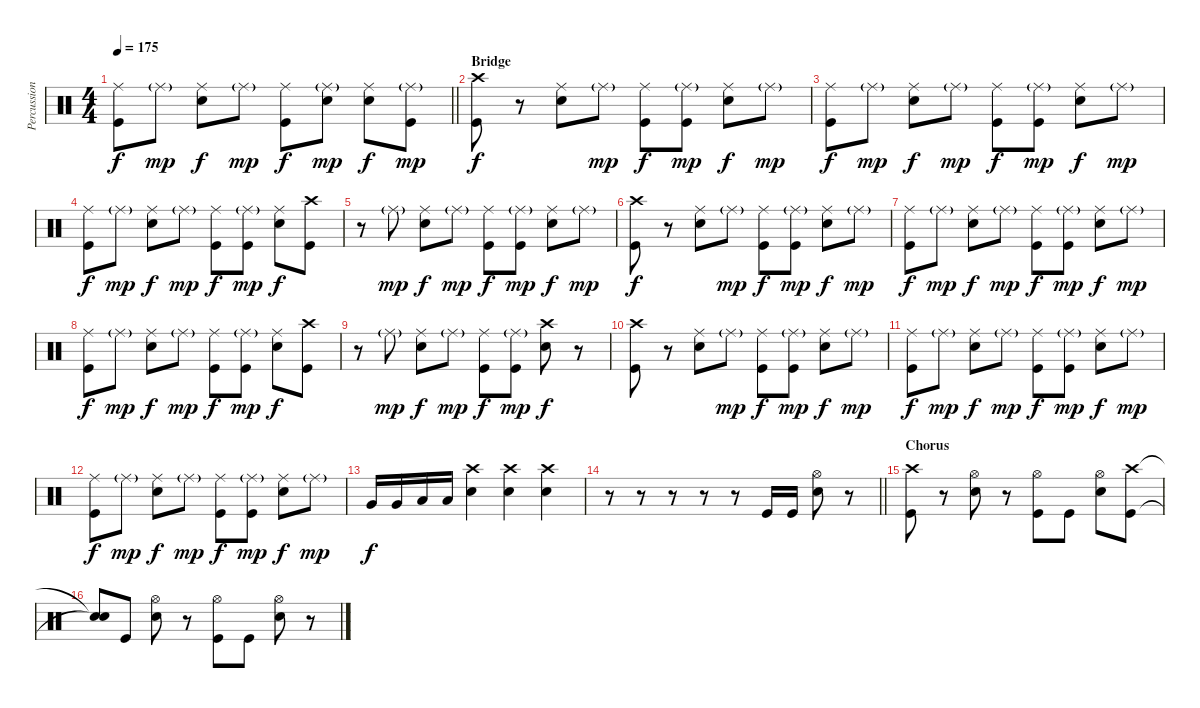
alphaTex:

\track ("Percussion" "Percussion") {instrument percussion}
\staff {score}
\articulation defaults
\ts (4 4)
\tempo 175
\clef neutral
\barLineRight lightlight
\ks c
("Ride (middle)" "Kick (hit)").8{dy f} "Ride (middle)"{g}.8{dy mp} ("Ride (middle)" "Snare (hit) 2").8{dy f} "Ride (middle)"{g}.8{dy mp} ("Ride (middle)" "Kick (hit)").8{dy f} ("Ride (middle)"{g} "Snare (hit) 2").8{dy mp} ("Ride (middle)" "Snare (hit) 2").8{dy f} ("Ride (middle)"{g} "Kick (hit)").8{dy mp} |
\section ("" "Bridge")
("Crash high (hit)" "Kick (hit)").8{dy f} r.8 ("Ride (middle)" "Snare (hit) 2").8 "Ride (middle)"{g}.8{dy mp} ("Ride (middle)" "Kick (hit)").8{dy f} ("Ride (middle)"{g} "Kick (hit)").8{dy mp} ("Ride (middle)" "Snare (hit) 2").8{dy f} "Ride (middle)"{g}.8{dy mp} |
("Ride (middle)" "Kick (hit)").8{dy f} "Ride (middle)"{g}.8{dy mp} ("Ride (middle)" "Snare (hit) 2").8{dy f} "Ride (middle)"{g}.8{dy mp} ("Ride (middle)" "Kick (hit)").8{dy f} ("Ride (middle)"{g} "Kick (hit)").8{dy mp} ("Ride (middle)" "Snare (hit) 2").8{dy f} "Ride (middle)"{g}.8{dy mp} |
("Ride (middle)" "Kick (hit)").8{dy f} "Ride (middle)"{g}.8{dy mp} ("Ride (middle)" "Snare (hit) 2").8{dy f} "Ride (middle)"{g}.8{dy mp} ("Ride (middle)" "Kick (hit)").8{dy f} ("Ride (middle)"{g} "Kick (hit)").8{dy mp} ("Ride (middle)" "Snare (hit) 2").8{dy f} ("Crash high (hit)" "Kick (hit)").8 |
r.8 "Ride (middle)"{g}.8{dy mp} ("Ride (middle)" "Snare (hit) 2").8{dy f} "Ride (middle)"{g}.8{dy mp} ("Ride (middle)" "Kick (hit)").8{dy f} ("Ride (middle)"{g} "Kick (hit)").8{dy mp} ("Ride (middle)" "Snare (hit) 2").8{dy f} "Ride (middle)"{g}.8{dy mp} |
("Crash high (hit)" "Kick (hit)").8{dy f} r.8 ("Ride (middle)" "Snare (hit) 2").8 "Ride (middle)"{g}.8{dy mp} ("Ride (middle)" "Kick (hit)").8{dy f} ("Ride (middle)"{g} "Kick (hit)").8{dy mp} ("Ride (middle)" "Snare (hit) 2").8{dy f} "Ride (middle)"{g}.8{dy mp} |
("Ride (middle)" "Kick (hit)").8{dy f} "Ride (middle)"{g}.8{dy mp} ("Ride (middle)" "Snare (hit) 2").8{dy f} "Ride (middle)"{g}.8{dy mp} ("Ride (middle)" "Kick (hit)").8{dy f} ("Ride (middle)"{g} "Kick (hit)").8{dy mp} ("Ride (middle)" "Snare (hit) 2").8{dy f} "Ride (middle)"{g}.8{dy mp} |
("Ride (middle)" "Kick (hit)").8{dy f} "Ride (middle)"{g}.8{dy mp} ("Ride (middle)" "Snare (hit) 2").8{dy f} "Ride (middle)"{g}.8{dy mp} ("Ride (middle)" "Kick (hit)").8{dy f} ("Ride (middle)"{g} "Kick (hit)").8{dy mp} ("Ride (middle)" "Snare (hit) 2").8{dy f} ("Crash high (hit)" "Kick (hit)").8 |
r.8 "Ride (middle)"{g}.8{dy mp} ("Ride (middle)" "Snare (hit) 2").8{dy f} "Ride (middle)"{g}.8{dy mp} ("Ride (middle)" "Kick (hit)").8{dy f} ("Ride (middle)"{g} "Kick (hit)").8{dy mp} ("Crash high (hit)" "Snare (hit) 2").8{dy f} r.8 |
("Crash high (hit)" "Kick (hit)").8 r.8 ("Ride (middle)" "Snare (hit) 2").8 "Ride (middle)"{g}.8{dy mp} ("Ride (middle)" "Kick (hit)").8{dy f} ("Ride (middle)"{g} "Kick (hit)").8{dy mp} ("Ride (middle)" "Snare (hit) 2").8{dy f} "Ride (middle)"{g}.8{dy mp} |
("Ride (middle)" "Kick (hit)").8{dy f} "Ride (middle)"{g}.8{dy mp} ("Ride (middle)" "Snare (hit) 2").8{dy f} "Ride (middle)"{g}.8{dy mp} ("Ride (middle)" "Kick (hit)").8{dy f} ("Ride (middle)"{g} "Kick (hit)").8{dy mp} ("Ride (middle)" "Snare (hit) 2").8{dy f} "Ride (middle)"{g}.8{dy mp} |
("Ride (middle)" "Kick (hit)").8{dy f} "Ride (middle)"{g}.8{dy mp} ("Ride (middle)" "Snare (hit) 2").8{dy f} "Ride (middle)"{g}.8{dy mp} ("Ride (middle)" "Kick (hit)").8{dy f} ("Ride (middle)"{g} "Kick (hit)").8{dy mp} ("Ride (middle)" "Snare (hit) 2").8{dy f} "Ride (middle)"{g}.8{dy mp} |
"Very Low Tom (hit)".16{dy f} "Very Low Tom (hit)".16 "Low Floor Tom (hit)".16 "Low Floor Tom (hit)".16 ("Crash high (hit)" "Snare (hit) 2").4 ("Crash high (hit)" "Snare (hit) 2").4 ("Crash high (hit)" "Snare (hit) 2").4 |
\barLineRight lightlight
r.8 r.8 r.8 r.8 r.8 "Kick (hit)".16 "Kick (hit)".16 ("Hi-Hat (open)" "Snare (hit) 2").8 r.8 |
\section ("" "Chorus")
("Crash high (hit)" "Kick (hit)").8 r.8 ("Hi-Hat (open)" "Snare (hit) 2").8 r.8 ("Hi-Hat (open)" "Kick (hit)").8 "Kick (hit)".8 ("Hi-Hat (open)" "Snare (hit) 2").8 ("Crash high (hit)" "Kick (hit)").8 |
("Snare (hit)"{t} "Snare (hit)"{t}).8 "Kick (hit)".8 ("Hi-Hat (open)" "Snare (hit) 2").8 r.8 ("Hi-Hat (open)" "Kick (hit)").8 "Kick (hit)".8 ("Hi-Hat (open)" "Snare (hit) 2").8 r.8
